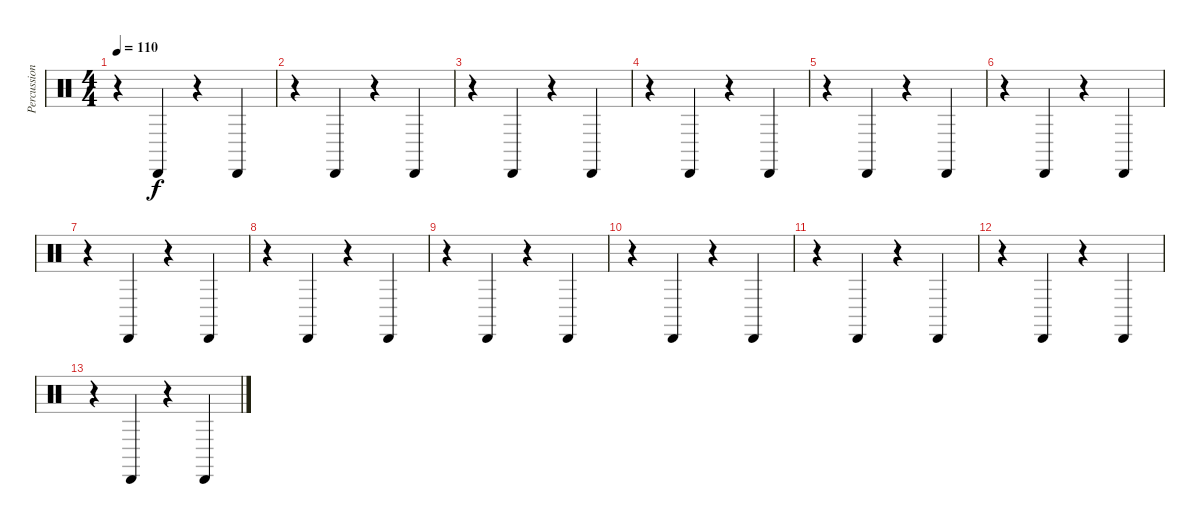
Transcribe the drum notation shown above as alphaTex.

\track ("Percussion" "Percussion") {instrument percussion}
\staff {score}
\articulation defaults
\ts (4 4)
\tempo 110
\clef neutral
\ks c
r.4{dy f} "Cabasa (hit)".4 r.4 "Cabasa (hit)".4 |
r.4 "Cabasa (hit)".4 r.4 "Cabasa (hit)".4 |
r.4 "Cabasa (hit)".4 r.4 "Cabasa (hit)".4 |
r.4 "Cabasa (hit)".4 r.4 "Cabasa (hit)".4 |
r.4 "Cabasa (hit)".4 r.4 "Cabasa (hit)".4 |
r.4 "Cabasa (hit)".4 r.4 "Cabasa (hit)".4 |
r.4 "Cabasa (hit)".4 r.4 "Cabasa (hit)".4 |
r.4 "Cabasa (hit)".4 r.4 "Cabasa (hit)".4 |
r.4 "Cabasa (hit)".4 r.4 "Cabasa (hit)".4 |
r.4 "Cabasa (hit)".4 r.4 "Cabasa (hit)".4 |
r.4 "Cabasa (hit)".4 r.4 "Cabasa (hit)".4 |
r.4 "Cabasa (hit)".4 r.4 "Cabasa (hit)".4 |
r.4 "Cabasa (hit)".4 r.4 "Cabasa (hit)".4
